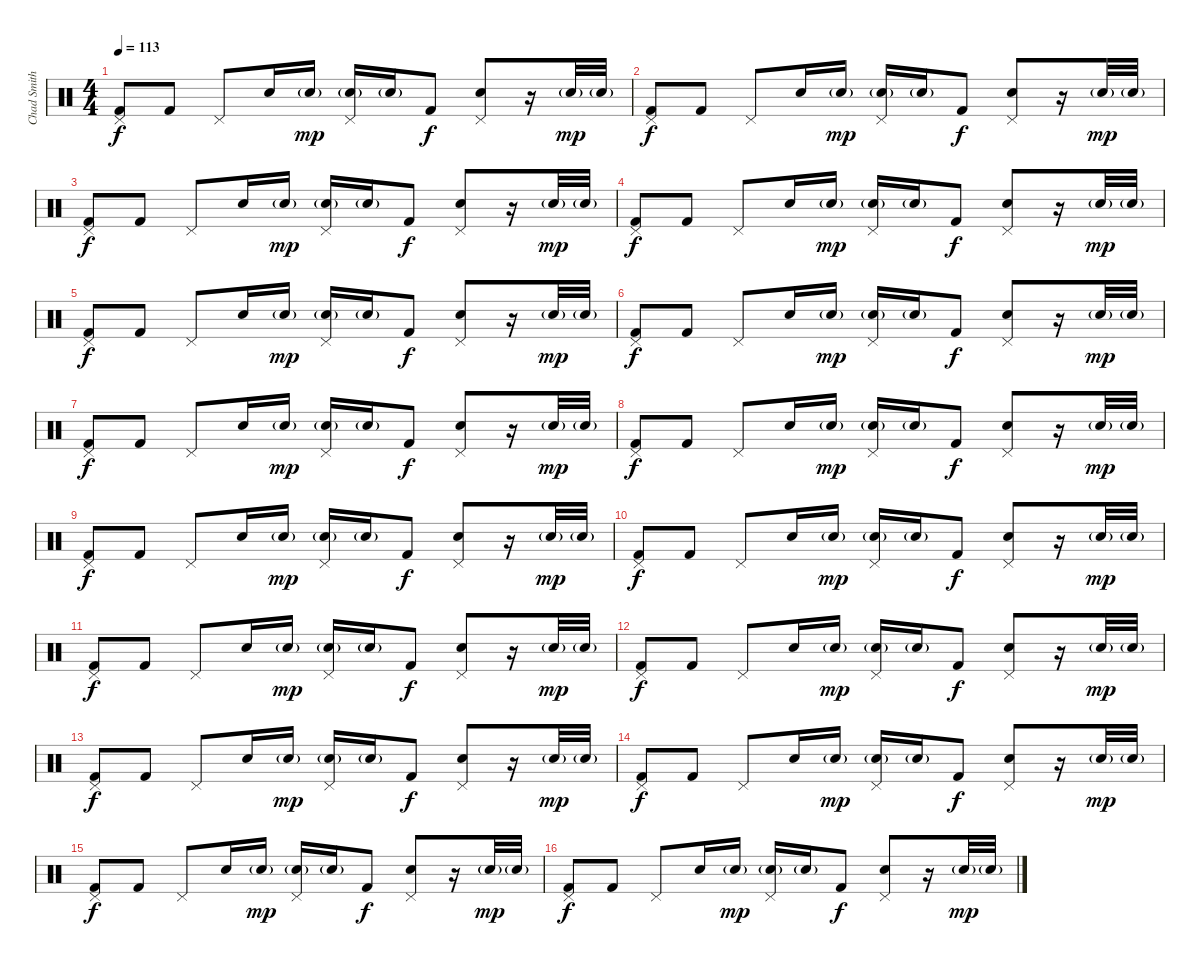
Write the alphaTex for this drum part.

\track ("Chad Smith" "Chad Smith") {instrument percussion}
\staff {score}
\articulation defaults
\ts (4 4)
\tempo 113
\clef neutral
\ks c
("Pedal Hi-Hat (hit)" "Kick (hit) 2").8{dy f} "Kick (hit) 2".8 "Pedal Hi-Hat (hit)".8 "Snare (hit) 2".16 "Snare (hit) 2"{g}.16{dy mp} ("Pedal Hi-Hat (hit)" "Snare (hit) 2"{g}).16 "Snare (hit) 2"{g}.16 "Kick (hit) 2".8{dy f} ("Pedal Hi-Hat (hit)" "Snare (hit) 2").8 r.16 "Snare (hit) 2"{g}.32{dy mp} "Snare (hit) 2"{g}.32 |
("Pedal Hi-Hat (hit)" "Kick (hit) 2").8{dy f} "Kick (hit) 2".8 "Pedal Hi-Hat (hit)".8 "Snare (hit) 2".16 "Snare (hit) 2"{g}.16{dy mp} ("Pedal Hi-Hat (hit)" "Snare (hit) 2"{g}).16 "Snare (hit) 2"{g}.16 "Kick (hit) 2".8{dy f} ("Pedal Hi-Hat (hit)" "Snare (hit) 2").8 r.16 "Snare (hit) 2"{g}.32{dy mp} "Snare (hit) 2"{g}.32 |
("Pedal Hi-Hat (hit)" "Kick (hit) 2").8{dy f} "Kick (hit) 2".8 "Pedal Hi-Hat (hit)".8 "Snare (hit) 2".16 "Snare (hit) 2"{g}.16{dy mp} ("Pedal Hi-Hat (hit)" "Snare (hit) 2"{g}).16 "Snare (hit) 2"{g}.16 "Kick (hit) 2".8{dy f} ("Pedal Hi-Hat (hit)" "Snare (hit) 2").8 r.16 "Snare (hit) 2"{g}.32{dy mp} "Snare (hit) 2"{g}.32 |
("Pedal Hi-Hat (hit)" "Kick (hit) 2").8{dy f} "Kick (hit) 2".8 "Pedal Hi-Hat (hit)".8 "Snare (hit) 2".16 "Snare (hit) 2"{g}.16{dy mp} ("Pedal Hi-Hat (hit)" "Snare (hit) 2"{g}).16 "Snare (hit) 2"{g}.16 "Kick (hit) 2".8{dy f} ("Pedal Hi-Hat (hit)" "Snare (hit) 2").8 r.16 "Snare (hit) 2"{g}.32{dy mp} "Snare (hit) 2"{g}.32 |
("Pedal Hi-Hat (hit)" "Kick (hit) 2").8{dy f} "Kick (hit) 2".8 "Pedal Hi-Hat (hit)".8 "Snare (hit) 2".16 "Snare (hit) 2"{g}.16{dy mp} ("Pedal Hi-Hat (hit)" "Snare (hit) 2"{g}).16 "Snare (hit) 2"{g}.16 "Kick (hit) 2".8{dy f} ("Pedal Hi-Hat (hit)" "Snare (hit) 2").8 r.16 "Snare (hit) 2"{g}.32{dy mp} "Snare (hit) 2"{g}.32 |
("Pedal Hi-Hat (hit)" "Kick (hit) 2").8{dy f} "Kick (hit) 2".8 "Pedal Hi-Hat (hit)".8 "Snare (hit) 2".16 "Snare (hit) 2"{g}.16{dy mp} ("Pedal Hi-Hat (hit)" "Snare (hit) 2"{g}).16 "Snare (hit) 2"{g}.16 "Kick (hit) 2".8{dy f} ("Pedal Hi-Hat (hit)" "Snare (hit) 2").8 r.16 "Snare (hit) 2"{g}.32{dy mp} "Snare (hit) 2"{g}.32 |
("Pedal Hi-Hat (hit)" "Kick (hit) 2").8{dy f} "Kick (hit) 2".8 "Pedal Hi-Hat (hit)".8 "Snare (hit) 2".16 "Snare (hit) 2"{g}.16{dy mp} ("Pedal Hi-Hat (hit)" "Snare (hit) 2"{g}).16 "Snare (hit) 2"{g}.16 "Kick (hit) 2".8{dy f} ("Pedal Hi-Hat (hit)" "Snare (hit) 2").8 r.16 "Snare (hit) 2"{g}.32{dy mp} "Snare (hit) 2"{g}.32 |
("Pedal Hi-Hat (hit)" "Kick (hit) 2").8{dy f} "Kick (hit) 2".8 "Pedal Hi-Hat (hit)".8 "Snare (hit) 2".16 "Snare (hit) 2"{g}.16{dy mp} ("Pedal Hi-Hat (hit)" "Snare (hit) 2"{g}).16 "Snare (hit) 2"{g}.16 "Kick (hit) 2".8{dy f} ("Pedal Hi-Hat (hit)" "Snare (hit) 2").8 r.16 "Snare (hit) 2"{g}.32{dy mp} "Snare (hit) 2"{g}.32 |
("Pedal Hi-Hat (hit)" "Kick (hit) 2").8{dy f} "Kick (hit) 2".8 "Pedal Hi-Hat (hit)".8 "Snare (hit) 2".16 "Snare (hit) 2"{g}.16{dy mp} ("Pedal Hi-Hat (hit)" "Snare (hit) 2"{g}).16 "Snare (hit) 2"{g}.16 "Kick (hit) 2".8{dy f} ("Pedal Hi-Hat (hit)" "Snare (hit) 2").8 r.16 "Snare (hit) 2"{g}.32{dy mp} "Snare (hit) 2"{g}.32 |
("Pedal Hi-Hat (hit)" "Kick (hit) 2").8{dy f} "Kick (hit) 2".8 "Pedal Hi-Hat (hit)".8 "Snare (hit) 2".16 "Snare (hit) 2"{g}.16{dy mp} ("Pedal Hi-Hat (hit)" "Snare (hit) 2"{g}).16 "Snare (hit) 2"{g}.16 "Kick (hit) 2".8{dy f} ("Pedal Hi-Hat (hit)" "Snare (hit) 2").8 r.16 "Snare (hit) 2"{g}.32{dy mp} "Snare (hit) 2"{g}.32 |
("Pedal Hi-Hat (hit)" "Kick (hit) 2").8{dy f} "Kick (hit) 2".8 "Pedal Hi-Hat (hit)".8 "Snare (hit) 2".16 "Snare (hit) 2"{g}.16{dy mp} ("Pedal Hi-Hat (hit)" "Snare (hit) 2"{g}).16 "Snare (hit) 2"{g}.16 "Kick (hit) 2".8{dy f} ("Pedal Hi-Hat (hit)" "Snare (hit) 2").8 r.16 "Snare (hit) 2"{g}.32{dy mp} "Snare (hit) 2"{g}.32 |
("Pedal Hi-Hat (hit)" "Kick (hit) 2").8{dy f} "Kick (hit) 2".8 "Pedal Hi-Hat (hit)".8 "Snare (hit) 2".16 "Snare (hit) 2"{g}.16{dy mp} ("Pedal Hi-Hat (hit)" "Snare (hit) 2"{g}).16 "Snare (hit) 2"{g}.16 "Kick (hit) 2".8{dy f} ("Pedal Hi-Hat (hit)" "Snare (hit) 2").8 r.16 "Snare (hit) 2"{g}.32{dy mp} "Snare (hit) 2"{g}.32 |
("Pedal Hi-Hat (hit)" "Kick (hit) 2").8{dy f} "Kick (hit) 2".8 "Pedal Hi-Hat (hit)".8 "Snare (hit) 2".16 "Snare (hit) 2"{g}.16{dy mp} ("Pedal Hi-Hat (hit)" "Snare (hit) 2"{g}).16 "Snare (hit) 2"{g}.16 "Kick (hit) 2".8{dy f} ("Pedal Hi-Hat (hit)" "Snare (hit) 2").8 r.16 "Snare (hit) 2"{g}.32{dy mp} "Snare (hit) 2"{g}.32 |
("Pedal Hi-Hat (hit)" "Kick (hit) 2").8{dy f} "Kick (hit) 2".8 "Pedal Hi-Hat (hit)".8 "Snare (hit) 2".16 "Snare (hit) 2"{g}.16{dy mp} ("Pedal Hi-Hat (hit)" "Snare (hit) 2"{g}).16 "Snare (hit) 2"{g}.16 "Kick (hit) 2".8{dy f} ("Pedal Hi-Hat (hit)" "Snare (hit) 2").8 r.16 "Snare (hit) 2"{g}.32{dy mp} "Snare (hit) 2"{g}.32 |
("Pedal Hi-Hat (hit)" "Kick (hit) 2").8{dy f} "Kick (hit) 2".8 "Pedal Hi-Hat (hit)".8 "Snare (hit) 2".16 "Snare (hit) 2"{g}.16{dy mp} ("Pedal Hi-Hat (hit)" "Snare (hit) 2"{g}).16 "Snare (hit) 2"{g}.16 "Kick (hit) 2".8{dy f} ("Pedal Hi-Hat (hit)" "Snare (hit) 2").8 r.16 "Snare (hit) 2"{g}.32{dy mp} "Snare (hit) 2"{g}.32 |
("Pedal Hi-Hat (hit)" "Kick (hit) 2").8{dy f} "Kick (hit) 2".8 "Pedal Hi-Hat (hit)".8 "Snare (hit) 2".16 "Snare (hit) 2"{g}.16{dy mp} ("Pedal Hi-Hat (hit)" "Snare (hit) 2"{g}).16 "Snare (hit) 2"{g}.16 "Kick (hit) 2".8{dy f} ("Pedal Hi-Hat (hit)" "Snare (hit) 2").8 r.16 "Snare (hit) 2"{g}.32{dy mp} "Snare (hit) 2"{g}.32
